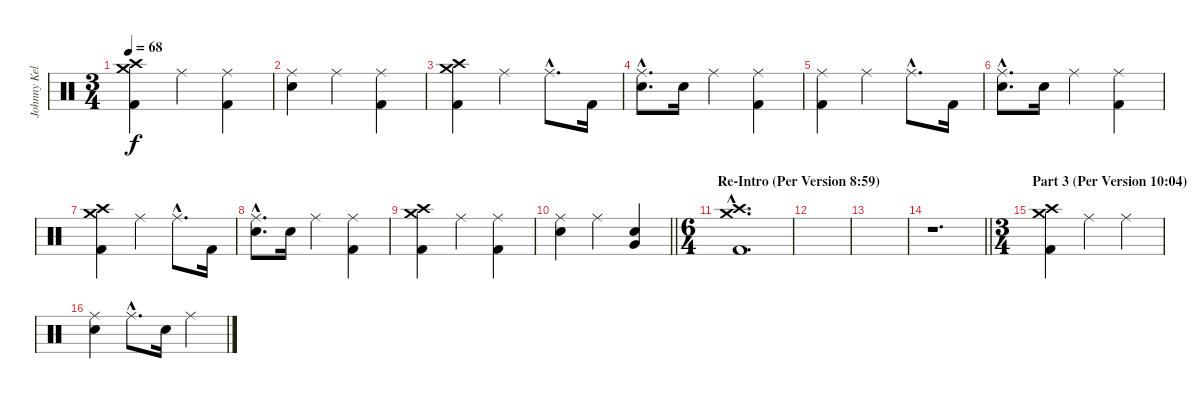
\track ("Johnny Kelly" "Johnny Kel") {instrument percussion}
\staff {score}
\articulation defaults
\ts (3 4)
\tempo 68
\clef neutral
\ks c
("Crash high (hit)" "Crash medium (hit)" "Kick (hit) 2").4{dy f} "Ride (middle)".4 ("Ride (middle)" "Kick (hit) 2").4 |
("Ride (middle)" "Electric Snare (hit)").4 "Ride (middle)".4 ("Ride (middle)" "Kick (hit) 2").4 |
("Crash high (hit)" "Crash medium (hit)" "Kick (hit) 2").4 "Ride (middle)".4 "Ride (middle)"{hac}.8{d} "Kick (hit) 2".16 |
("Ride (middle)"{hac} "Electric Snare (hit)"{hac}).8{d} "Electric Snare (hit)".16 "Ride (middle)".4 ("Ride (middle)" "Kick (hit) 2").4 |
("Ride (middle)" "Kick (hit) 2").4 "Ride (middle)".4 "Ride (middle)"{hac}.8{d} "Kick (hit) 2".16 |
("Ride (middle)"{hac} "Electric Snare (hit)"{hac}).8{d} "Electric Snare (hit)".16 "Ride (middle)".4 ("Ride (middle)" "Kick (hit) 2").4 |
("Crash high (hit)" "Crash medium (hit)" "Kick (hit) 2").4 "Ride (middle)".4 "Ride (middle)"{hac}.8{d} "Kick (hit) 2".16 |
("Ride (middle)"{hac} "Electric Snare (hit)"{hac}).8{d} "Electric Snare (hit)".16 "Ride (middle)".4 ("Ride (middle)" "Kick (hit) 2").4 |
("Crash high (hit)" "Crash medium (hit)" "Kick (hit) 2").4 "Ride (middle)".4 ("Ride (middle)" "Kick (hit) 2").4 |
\barLineRight lightlight
("Ride (middle)" "Electric Snare (hit)").4 "Ride (middle)".4 ("Very Low Tom (hit)" "Electric Snare (hit)").4 |
\ts (6 4)
\section ("" "Re-Intro (Per Version 8:59)")
("Crash high (hit)"{hac} "Crash medium (hit)"{hac} "Kick (hit) 2"{hac}).1{d} |
|
|
\barLineRight lightlight
r.1{d} |
\ts (3 4)
\section ("" "Part 3 (Per Version 10:04)")
("Crash high (hit)" "Crash medium (hit)" "Kick (hit) 2").4 "Ride (middle)".4 "Ride (middle)".4 |
("Ride (middle)" "Electric Snare (hit)").4 "Ride (middle)"{hac}.8{d} "Electric Snare (hit)".16 "Ride (middle)".4
